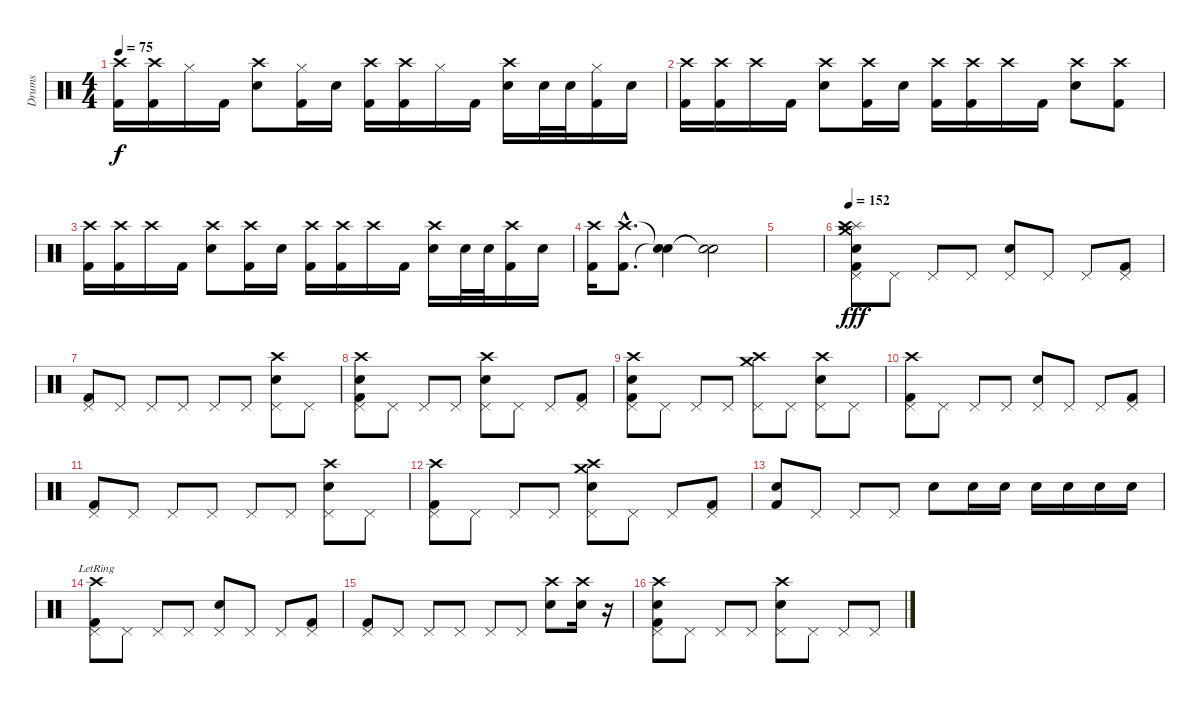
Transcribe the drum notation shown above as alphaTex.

\track ("Drums" "Drums") {instrument percussion}
\staff {score}
\articulation defaults
\ts (4 4)
\tempo 75
\clef neutral
\ks c
("Crash high (hit)" "Kick (hit) 2").16{dy f} ("Crash high (hit)" "Kick (hit) 2").16 "Hi-Hat (closed)".16 "Kick (hit) 2".16 ("Crash high (hit)" "Electric Snare (hit)").8 ("Hi-Hat (closed)" "Kick (hit) 2").16 "Electric Snare (hit)".16 ("Crash high (hit)" "Kick (hit) 2").16 ("Crash high (hit)" "Kick (hit) 2").16 "Hi-Hat (closed)".16 "Kick (hit) 2".16 ("Crash high (hit)" "Electric Snare (hit)").16 "Electric Snare (hit)".32 "Electric Snare (hit)".32 ("Hi-Hat (closed)" "Kick (hit) 2").16 "Electric Snare (hit)".16 |
("Crash high (hit)" "Kick (hit) 2").16 ("Crash high (hit)" "Kick (hit) 2").16 "Crash high (hit)".16 "Kick (hit) 2".16 ("Crash high (hit)" "Electric Snare (hit)").8 ("Crash high (hit)" "Kick (hit) 2").16 "Electric Snare (hit)".16 ("Crash high (hit)" "Kick (hit) 2").16 ("Crash high (hit)" "Kick (hit) 2").16 "Crash high (hit)".16 "Kick (hit) 2".16 ("Crash high (hit)" "Electric Snare (hit)").8 ("Crash high (hit)" "Kick (hit) 2").8 |
("Crash high (hit)" "Kick (hit) 2").16 ("Crash high (hit)" "Kick (hit) 2").16 "Crash high (hit)".16 "Kick (hit) 2".16 ("Crash high (hit)" "Electric Snare (hit)").8 ("Crash high (hit)" "Kick (hit) 2").16 "Electric Snare (hit)".16 ("Crash high (hit)" "Kick (hit) 2").16 ("Crash high (hit)" "Kick (hit) 2").16 "Crash high (hit)".16 "Kick (hit) 2".16 ("Crash high (hit)" "Electric Snare (hit)").16 "Electric Snare (hit)".32 "Electric Snare (hit)".32 ("Crash high (hit)" "Kick (hit) 2").16 "Electric Snare (hit)".16 |
("Crash high (hit)" "Kick (hit) 2").16 ("Crash high (hit)"{hac} "Kick (hit) 2"{hac}).8{d} ("Snare (hit)"{t} "Snare (hit)"{t}).4 ("Snare (hit)"{t} "Snare (hit)"{t}).2 |
|
\tempo 152
("Crash medium (hit)" "Splash (hit)" "Pedal Hi-Hat (hit)" "Crash high (hit)" "Snare (hit) 2" "Kick (hit) 2").8{dy fff} "Pedal Hi-Hat (hit)".8 "Pedal Hi-Hat (hit)".8 "Pedal Hi-Hat (hit)".8 ("Pedal Hi-Hat (hit)" "Snare (hit) 2").8 "Pedal Hi-Hat (hit)".8 "Pedal Hi-Hat (hit)".8 ("Pedal Hi-Hat (hit)" "Kick (hit) 2").8 |
("Pedal Hi-Hat (hit)" "Kick (hit) 2").8 "Pedal Hi-Hat (hit)".8 "Pedal Hi-Hat (hit)".8 "Pedal Hi-Hat (hit)".8 "Pedal Hi-Hat (hit)".8 "Pedal Hi-Hat (hit)".8 ("Crash high (hit)" "Pedal Hi-Hat (hit)" "Snare (hit) 2").8 "Pedal Hi-Hat (hit)".8 |
("Crash high (hit)" "Pedal Hi-Hat (hit)" "Snare (hit) 2" "Kick (hit) 2").8 "Pedal Hi-Hat (hit)".8 "Pedal Hi-Hat (hit)".8 "Pedal Hi-Hat (hit)".8 ("Crash high (hit)" "Pedal Hi-Hat (hit)" "Snare (hit) 2").8 "Pedal Hi-Hat (hit)".8 "Pedal Hi-Hat (hit)".8 ("Pedal Hi-Hat (hit)" "Kick (hit) 2").8 |
("Crash high (hit)" "Pedal Hi-Hat (hit)" "Snare (hit) 2" "Kick (hit) 2").8 "Pedal Hi-Hat (hit)".8 "Pedal Hi-Hat (hit)".8 "Pedal Hi-Hat (hit)".8 ("Crash medium (hit)" "Crash high (hit)" "Pedal Hi-Hat (hit)").8 "Pedal Hi-Hat (hit)".8 ("Crash high (hit)" "Pedal Hi-Hat (hit)" "Snare (hit) 2").8 "Pedal Hi-Hat (hit)".8 |
("Crash high (hit)" "Pedal Hi-Hat (hit)" "Kick (hit) 2").8 "Pedal Hi-Hat (hit)".8 "Pedal Hi-Hat (hit)".8 "Pedal Hi-Hat (hit)".8 ("Pedal Hi-Hat (hit)" "Snare (hit) 2").8 "Pedal Hi-Hat (hit)".8 "Pedal Hi-Hat (hit)".8 ("Pedal Hi-Hat (hit)" "Kick (hit) 2").8 |
("Pedal Hi-Hat (hit)" "Kick (hit) 2").8 "Pedal Hi-Hat (hit)".8 "Pedal Hi-Hat (hit)".8 "Pedal Hi-Hat (hit)".8 "Pedal Hi-Hat (hit)".8 "Pedal Hi-Hat (hit)".8 ("Crash high (hit)" "Pedal Hi-Hat (hit)" "Snare (hit) 2").8 "Pedal Hi-Hat (hit)".8 |
("Crash high (hit)" "Pedal Hi-Hat (hit)" "Kick (hit) 2").8 "Pedal Hi-Hat (hit)".8 "Pedal Hi-Hat (hit)".8 "Pedal Hi-Hat (hit)".8 ("Crash medium (hit)" "Crash high (hit)" "Pedal Hi-Hat (hit)" "Snare (hit) 2").8 "Pedal Hi-Hat (hit)".8 "Pedal Hi-Hat (hit)".8 ("Pedal Hi-Hat (hit)" "Kick (hit) 2").8 |
("Snare (hit) 2" "Kick (hit) 2").8 "Pedal Hi-Hat (hit)".8 "Pedal Hi-Hat (hit)".8 "Pedal Hi-Hat (hit)".8 "Snare (hit) 2".8 "Snare (hit) 2".16 "Snare (hit) 2".16 "Snare (hit) 2".16 "Snare (hit) 2".16 "Snare (hit) 2".16 "Snare (hit) 2".16 |
("Crash high (hit)"{lr} "Pedal Hi-Hat (hit)" "Kick (hit) 2").8 "Pedal Hi-Hat (hit)".8 "Pedal Hi-Hat (hit)".8 "Pedal Hi-Hat (hit)".8 ("Pedal Hi-Hat (hit)" "Snare (hit) 2").8 "Pedal Hi-Hat (hit)".8 "Pedal Hi-Hat (hit)".8 ("Pedal Hi-Hat (hit)" "Kick (hit) 2").8 |
("Pedal Hi-Hat (hit)" "Kick (hit) 2").8 "Pedal Hi-Hat (hit)".8 "Pedal Hi-Hat (hit)".8 "Pedal Hi-Hat (hit)".8 "Pedal Hi-Hat (hit)".8 "Pedal Hi-Hat (hit)".8 ("Crash high (hit)" "Snare (hit) 2").8 ("Crash high (hit)" "Snare (hit) 2").16 r.16 |
("Kick (hit) 2" "Crash high (hit)" "Pedal Hi-Hat (hit)" "Snare (hit) 2").8 "Pedal Hi-Hat (hit)".8 "Pedal Hi-Hat (hit)".8 "Pedal Hi-Hat (hit)".8 ("Crash high (hit)" "Pedal Hi-Hat (hit)" "Snare (hit) 2").8 "Pedal Hi-Hat (hit)".8 "Pedal Hi-Hat (hit)".8 "Pedal Hi-Hat (hit)".8
